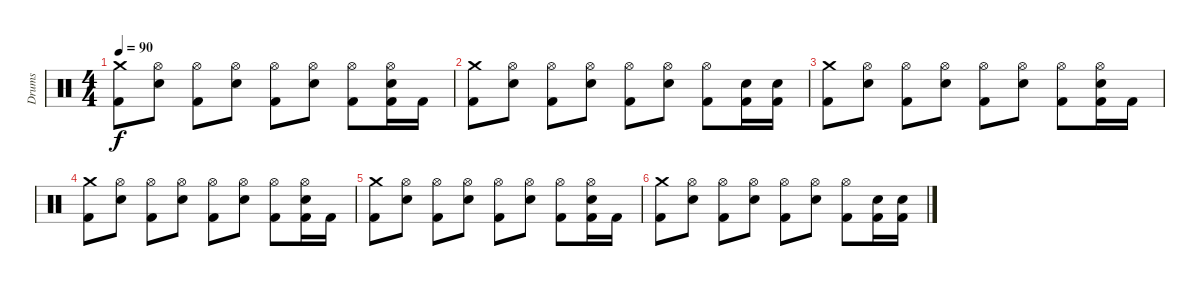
\track ("Drums" "Drums") {instrument percussion}
\staff {score}
\articulation defaults
\ts (4 4)
\tempo 90
\clef neutral
\ks c
("Crash medium (hit)" "Kick (hit) 2").8{dy f} ("Hi-Hat (open)" "Electric Snare (hit)").8 ("Hi-Hat (open)" "Kick (hit) 2").8 ("Hi-Hat (open)" "Electric Snare (hit)").8 ("Hi-Hat (open)" "Kick (hit) 2").8 ("Hi-Hat (open)" "Electric Snare (hit)").8 ("Hi-Hat (open)" "Kick (hit) 2").8 ("Electric Snare (hit)" "Hi-Hat (open)" "Kick (hit) 2").16 "Kick (hit) 2".16 |
("Crash medium (hit)" "Kick (hit) 2").8 ("Hi-Hat (open)" "Electric Snare (hit)").8 ("Hi-Hat (open)" "Kick (hit) 2").8 ("Hi-Hat (open)" "Electric Snare (hit)").8 ("Hi-Hat (open)" "Kick (hit) 2").8 ("Hi-Hat (open)" "Electric Snare (hit)").8 ("Hi-Hat (open)" "Kick (hit) 2").8 ("Electric Snare (hit)" "Kick (hit) 2").16 ("Electric Snare (hit)" "Kick (hit) 2").16 |
("Crash medium (hit)" "Kick (hit) 2").8 ("Hi-Hat (open)" "Electric Snare (hit)").8 ("Hi-Hat (open)" "Kick (hit) 2").8 ("Hi-Hat (open)" "Electric Snare (hit)").8 ("Hi-Hat (open)" "Kick (hit) 2").8 ("Hi-Hat (open)" "Electric Snare (hit)").8 ("Hi-Hat (open)" "Kick (hit) 2").8 ("Electric Snare (hit)" "Hi-Hat (open)" "Kick (hit) 2").16 "Kick (hit) 2".16 |
("Crash medium (hit)" "Kick (hit) 2").8 ("Hi-Hat (open)" "Electric Snare (hit)").8 ("Hi-Hat (open)" "Kick (hit) 2").8 ("Hi-Hat (open)" "Electric Snare (hit)").8 ("Hi-Hat (open)" "Kick (hit) 2").8 ("Hi-Hat (open)" "Electric Snare (hit)").8 ("Hi-Hat (open)" "Kick (hit) 2").8 ("Electric Snare (hit)" "Hi-Hat (open)" "Kick (hit) 2").16 "Kick (hit) 2".16 |
("Crash medium (hit)" "Kick (hit) 2").8 ("Hi-Hat (open)" "Electric Snare (hit)").8 ("Hi-Hat (open)" "Kick (hit) 2").8 ("Hi-Hat (open)" "Electric Snare (hit)").8 ("Hi-Hat (open)" "Kick (hit) 2").8 ("Hi-Hat (open)" "Electric Snare (hit)").8 ("Hi-Hat (open)" "Kick (hit) 2").8 ("Electric Snare (hit)" "Hi-Hat (open)" "Kick (hit) 2").16 "Kick (hit) 2".16 |
("Crash medium (hit)" "Kick (hit) 2").8 ("Hi-Hat (open)" "Electric Snare (hit)").8 ("Hi-Hat (open)" "Kick (hit) 2").8 ("Hi-Hat (open)" "Electric Snare (hit)").8 ("Hi-Hat (open)" "Kick (hit) 2").8 ("Hi-Hat (open)" "Electric Snare (hit)").8 ("Hi-Hat (open)" "Kick (hit) 2").8 ("Electric Snare (hit)" "Kick (hit) 2").16 ("Electric Snare (hit)" "Kick (hit) 2").16
